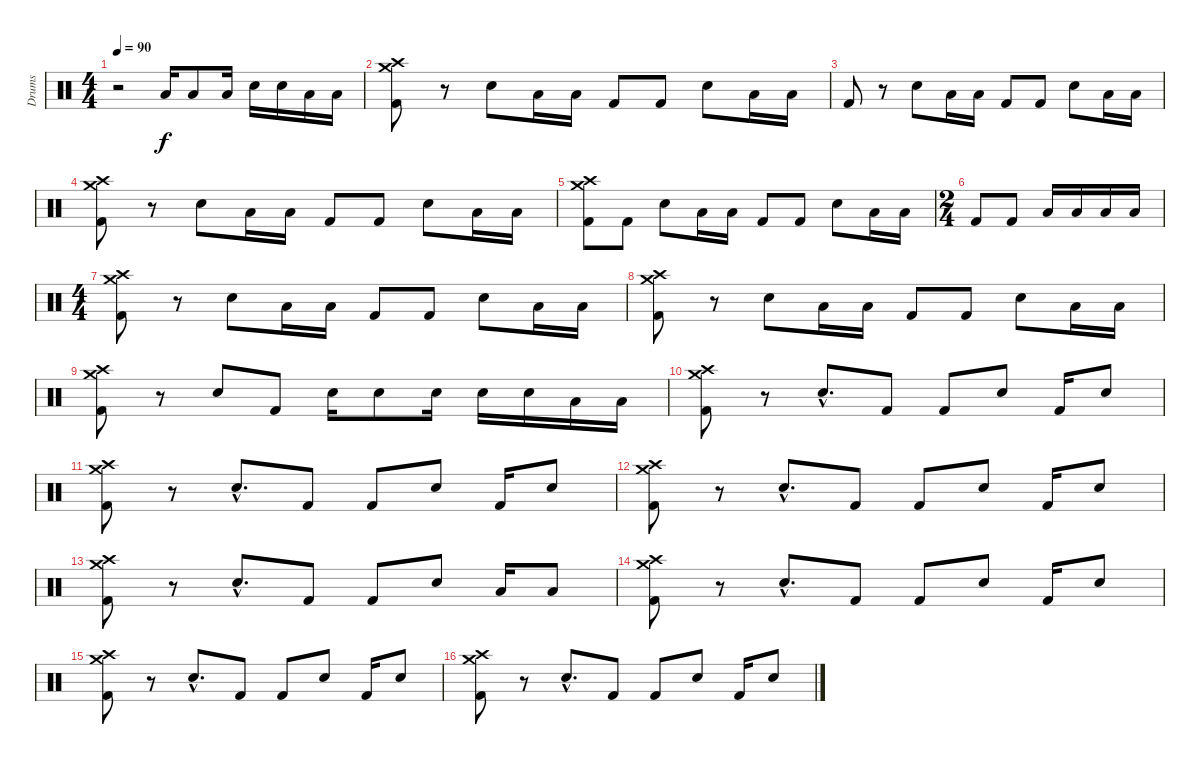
\track ("Drums" "Drums") {instrument percussion}
\staff {score}
\articulation defaults
\ts (4 4)
\tempo 90
\clef neutral
\ks c
r.2{dy f} "Low Tom (hit)".16 "Low Tom (hit)".8 "Low Tom (hit)".16 "Snare (hit) 2".16 "Snare (hit) 2".16 "Low Tom (hit)".16 "Low Tom (hit)".16 |
("Crash high (hit)" "Crash medium (hit)" "Kick (hit) 2").8 r.8 "Snare (hit) 2".8 "Low Tom (hit)".16 "Low Tom (hit)".16 "Kick (hit) 2".8 "Kick (hit) 2".8 "Snare (hit) 2".8 "Low Tom (hit)".16 "Low Tom (hit)".16 |
"Kick (hit) 2".8 r.8 "Snare (hit) 2".8 "Low Tom (hit)".16 "Low Tom (hit)".16 "Kick (hit) 2".8 "Kick (hit) 2".8 "Snare (hit) 2".8 "Low Tom (hit)".16 "Low Tom (hit)".16 |
("Crash high (hit)" "Crash medium (hit)" "Kick (hit) 2").8 r.8 "Snare (hit) 2".8 "Low Tom (hit)".16 "Low Tom (hit)".16 "Kick (hit) 2".8 "Kick (hit) 2".8 "Snare (hit) 2".8 "Low Tom (hit)".16 "Low Tom (hit)".16 |
("Crash high (hit)" "Crash medium (hit)" "Kick (hit) 2").8 "Kick (hit) 2".8 "Snare (hit) 2".8 "Low Tom (hit)".16 "Low Tom (hit)".16 "Kick (hit) 2".8 "Kick (hit) 2".8 "Snare (hit) 2".8 "Low Tom (hit)".16 "Low Tom (hit)".16 |
\ts (2 4)
"Kick (hit) 2".8 "Kick (hit) 2".8 "Low Tom (hit)".16 "Low Tom (hit)".16 "Low Floor Tom (hit)".16 "Low Floor Tom (hit)".16 |
\ts (4 4)
("Crash high (hit)" "Crash medium (hit)" "Kick (hit) 2").8 r.8 "Snare (hit) 2".8 "Low Tom (hit)".16 "Low Tom (hit)".16 "Kick (hit) 2".8 "Kick (hit) 2".8 "Snare (hit) 2".8 "Low Tom (hit)".16 "Low Tom (hit)".16 |
("Crash high (hit)" "Crash medium (hit)" "Kick (hit) 2").8 r.8 "Snare (hit) 2".8 "Low Tom (hit)".16 "Low Tom (hit)".16 "Kick (hit) 2".8 "Kick (hit) 2".8 "Snare (hit) 2".8 "Low Tom (hit)".16 "Low Tom (hit)".16 |
("Crash high (hit)" "Crash medium (hit)" "Kick (hit) 2").8 r.8 "Snare (hit) 2".8 "Kick (hit) 2".8 "Snare (hit) 2".16 "Snare (hit) 2".8 "Snare (hit) 2".16 "Snare (hit) 2".16 "Snare (hit) 2".16 "Low Tom (hit)".16 "Low Tom (hit)".16 |
("Crash high (hit)" "Crash medium (hit)" "Kick (hit) 2").8 r.8 "Snare (hit) 2"{hac}.8{d} "Kick (hit) 2".8 "Kick (hit) 2".8 "Snare (hit) 2".8 "Kick (hit) 2".16 "Snare (hit) 2".8 |
("Crash high (hit)" "Crash medium (hit)" "Kick (hit) 2").8 r.8 "Snare (hit) 2"{hac}.8{d} "Kick (hit) 2".8 "Kick (hit) 2".8 "Snare (hit) 2".8 "Kick (hit) 2".16 "Snare (hit) 2".8 |
("Crash high (hit)" "Crash medium (hit)" "Kick (hit) 2").8 r.8 "Snare (hit) 2"{hac}.8{d} "Kick (hit) 2".8 "Kick (hit) 2".8 "Snare (hit) 2".8 "Kick (hit) 2".16 "Snare (hit) 2".8 |
("Crash high (hit)" "Crash medium (hit)" "Kick (hit) 2").8 r.8 "Snare (hit) 2"{hac}.8{d} "Kick (hit) 2".8 "Kick (hit) 2".8 "Snare (hit) 2".8 "Low Tom (hit)".16 "Low Tom (hit)".8 |
("Crash high (hit)" "Crash medium (hit)" "Kick (hit) 2").8 r.8 "Snare (hit) 2"{hac}.8{d} "Kick (hit) 2".8 "Kick (hit) 2".8 "Snare (hit) 2".8 "Kick (hit) 2".16 "Snare (hit) 2".8 |
("Crash high (hit)" "Crash medium (hit)" "Kick (hit) 2").8 r.8 "Snare (hit) 2"{hac}.8{d} "Kick (hit) 2".8 "Kick (hit) 2".8 "Snare (hit) 2".8 "Kick (hit) 2".16 "Snare (hit) 2".8 |
("Crash high (hit)" "Crash medium (hit)" "Kick (hit) 2").8 r.8 "Snare (hit) 2"{hac}.8{d} "Kick (hit) 2".8 "Kick (hit) 2".8 "Snare (hit) 2".8 "Kick (hit) 2".16 "Snare (hit) 2".8
